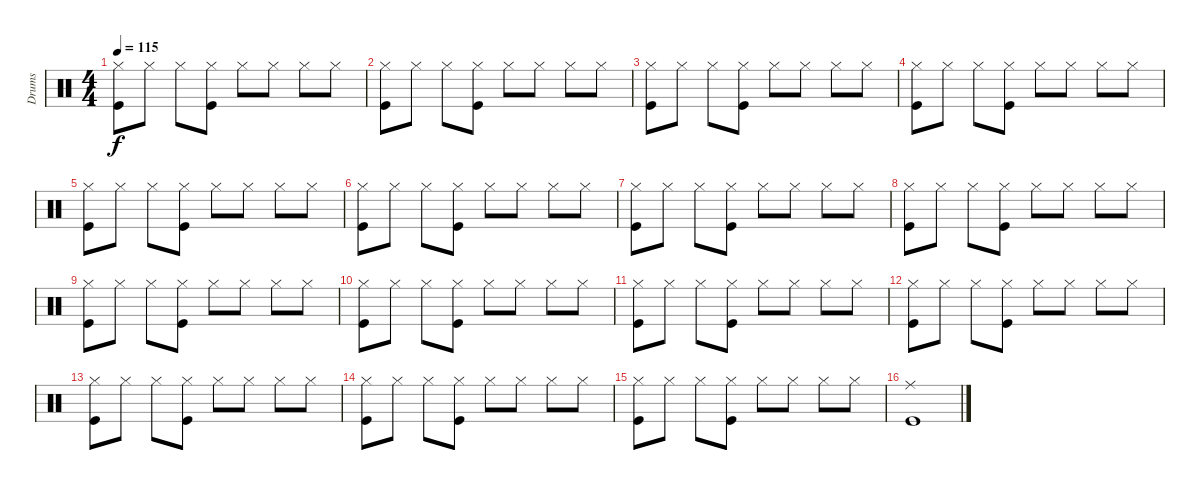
\track ("Drums" "Drums") {instrument percussion}
\staff {score}
\articulation defaults
\ts (4 4)
\tempo 115
\clef neutral
\ks c
("Hi-Hat (closed)" "Kick (hit)").8{dy f} "Hi-Hat (closed)".8 "Hi-Hat (closed)".8 ("Hi-Hat (closed)" "Kick (hit)").8 "Hi-Hat (closed)".8 "Hi-Hat (closed)".8 "Hi-Hat (closed)".8 "Hi-Hat (closed)".8 |
("Hi-Hat (closed)" "Kick (hit)").8 "Hi-Hat (closed)".8 "Hi-Hat (closed)".8 ("Hi-Hat (closed)" "Kick (hit)").8 "Hi-Hat (closed)".8 "Hi-Hat (closed)".8 "Hi-Hat (closed)".8 "Hi-Hat (closed)".8 |
("Hi-Hat (closed)" "Kick (hit)").8 "Hi-Hat (closed)".8 "Hi-Hat (closed)".8 ("Hi-Hat (closed)" "Kick (hit)").8 "Hi-Hat (closed)".8 "Hi-Hat (closed)".8 "Hi-Hat (closed)".8 "Hi-Hat (closed)".8 |
("Hi-Hat (closed)" "Kick (hit)").8 "Hi-Hat (closed)".8 "Hi-Hat (closed)".8 ("Hi-Hat (closed)" "Kick (hit)").8 "Hi-Hat (closed)".8 "Hi-Hat (closed)".8 "Hi-Hat (closed)".8 "Hi-Hat (closed)".8 |
("Hi-Hat (closed)" "Kick (hit)").8 "Hi-Hat (closed)".8 "Hi-Hat (closed)".8 ("Hi-Hat (closed)" "Kick (hit)").8 "Hi-Hat (closed)".8 "Hi-Hat (closed)".8 "Hi-Hat (closed)".8 "Hi-Hat (closed)".8 |
("Hi-Hat (closed)" "Kick (hit)").8 "Hi-Hat (closed)".8 "Hi-Hat (closed)".8 ("Hi-Hat (closed)" "Kick (hit)").8 "Hi-Hat (closed)".8 "Hi-Hat (closed)".8 "Hi-Hat (closed)".8 "Hi-Hat (closed)".8 |
("Hi-Hat (closed)" "Kick (hit)").8 "Hi-Hat (closed)".8 "Hi-Hat (closed)".8 ("Hi-Hat (closed)" "Kick (hit)").8 "Hi-Hat (closed)".8 "Hi-Hat (closed)".8 "Hi-Hat (closed)".8 "Hi-Hat (closed)".8 |
("Hi-Hat (closed)" "Kick (hit)").8 "Hi-Hat (closed)".8 "Hi-Hat (closed)".8 ("Hi-Hat (closed)" "Kick (hit)").8 "Hi-Hat (closed)".8 "Hi-Hat (closed)".8 "Hi-Hat (closed)".8 "Hi-Hat (closed)".8 |
("Hi-Hat (closed)" "Kick (hit)").8 "Hi-Hat (closed)".8 "Hi-Hat (closed)".8 ("Hi-Hat (closed)" "Kick (hit)").8 "Hi-Hat (closed)".8 "Hi-Hat (closed)".8 "Hi-Hat (closed)".8 "Hi-Hat (closed)".8 |
("Hi-Hat (closed)" "Kick (hit)").8 "Hi-Hat (closed)".8 "Hi-Hat (closed)".8 ("Hi-Hat (closed)" "Kick (hit)").8 "Hi-Hat (closed)".8 "Hi-Hat (closed)".8 "Hi-Hat (closed)".8 "Hi-Hat (closed)".8 |
("Hi-Hat (closed)" "Kick (hit)").8 "Hi-Hat (closed)".8 "Hi-Hat (closed)".8 ("Hi-Hat (closed)" "Kick (hit)").8 "Hi-Hat (closed)".8 "Hi-Hat (closed)".8 "Hi-Hat (closed)".8 "Hi-Hat (closed)".8 |
("Hi-Hat (closed)" "Kick (hit)").8 "Hi-Hat (closed)".8 "Hi-Hat (closed)".8 ("Hi-Hat (closed)" "Kick (hit)").8 "Hi-Hat (closed)".8 "Hi-Hat (closed)".8 "Hi-Hat (closed)".8 "Hi-Hat (closed)".8 |
("Hi-Hat (closed)" "Kick (hit)").8 "Hi-Hat (closed)".8 "Hi-Hat (closed)".8 ("Hi-Hat (closed)" "Kick (hit)").8 "Hi-Hat (closed)".8 "Hi-Hat (closed)".8 "Hi-Hat (closed)".8 "Hi-Hat (closed)".8 |
("Hi-Hat (closed)" "Kick (hit)").8 "Hi-Hat (closed)".8 "Hi-Hat (closed)".8 ("Hi-Hat (closed)" "Kick (hit)").8 "Hi-Hat (closed)".8 "Hi-Hat (closed)".8 "Hi-Hat (closed)".8 "Hi-Hat (closed)".8 |
("Hi-Hat (closed)" "Kick (hit)").8 "Hi-Hat (closed)".8 "Hi-Hat (closed)".8 ("Hi-Hat (closed)" "Kick (hit)").8 "Hi-Hat (closed)".8 "Hi-Hat (closed)".8 "Hi-Hat (closed)".8 "Hi-Hat (closed)".8 |
("Ride (middle)" "Kick (hit)").1
